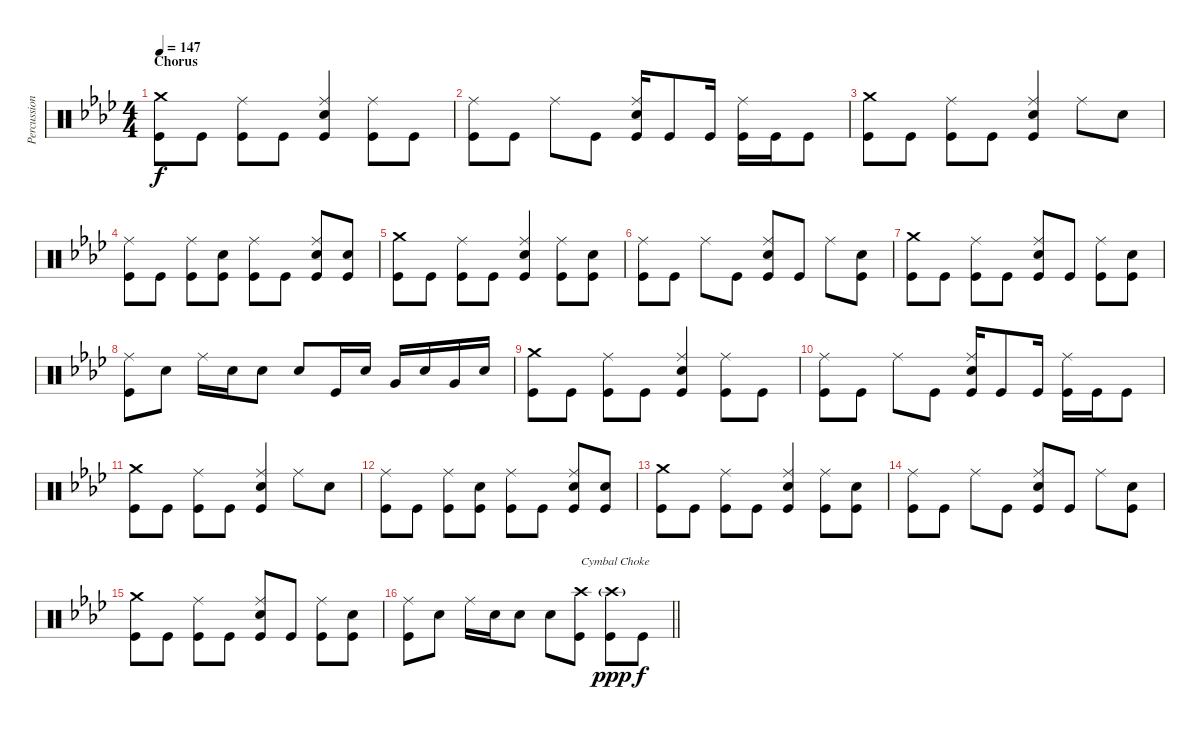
\track ("Percussion" "Percussion") {instrument percussion}
\staff {score}
\articulation defaults
\ts (4 4)
\section ("" "Chorus")
\tempo 147
\clef neutral
\ks ab
("Crash medium (hit)" "Kick (hit)").8{dy f} "Kick (hit)".8 ("Ride (middle)" "Kick (hit)").8 "Kick (hit)".8 ("Ride (middle)" "Electric Snare (hit)" "Kick (hit)").4 ("Ride (middle)" "Kick (hit)").8 "Kick (hit)".8 |
("Ride (middle)" "Kick (hit)").8 "Kick (hit)".8 "Ride (middle)".8 "Kick (hit)".8 ("Ride (middle)" "Electric Snare (hit)" "Kick (hit)").16 "Kick (hit)".8 "Kick (hit)".16 ("Ride (middle)" "Kick (hit)").16 "Kick (hit)".16 "Kick (hit)".8 |
("Crash medium (hit)" "Kick (hit)").8 "Kick (hit)".8 ("Ride (middle)" "Kick (hit)").8 "Kick (hit)".8 ("Ride (middle)" "Electric Snare (hit)" "Kick (hit)").4 "Ride (middle)".8 "Electric Snare (hit)".8 |
("Ride (middle)" "Kick (hit)").8 "Kick (hit)".8 ("Ride (middle)" "Kick (hit)").8 ("Electric Snare (hit)" "Kick (hit)").8 ("Ride (middle)" "Kick (hit)").8 "Kick (hit)".8 ("Ride (middle)" "Electric Snare (hit)" "Kick (hit)").8 ("Electric Snare (hit)" "Kick (hit)").8 |
("Crash medium (hit)" "Kick (hit)").8 "Kick (hit)".8 ("Ride (middle)" "Kick (hit)").8 "Kick (hit)".8 ("Ride (middle)" "Electric Snare (hit)" "Kick (hit)").4 ("Ride (middle)" "Kick (hit)").8 ("Electric Snare (hit)" "Kick (hit)").8 |
("Ride (middle)" "Kick (hit)").8 "Kick (hit)".8 "Ride (middle)".8 "Kick (hit)".8 ("Ride (middle)" "Electric Snare (hit)" "Kick (hit)").8 "Kick (hit)".8 "Ride (middle)".8 ("Electric Snare (hit)" "Kick (hit)").8 |
("Crash medium (hit)" "Kick (hit)").8 "Kick (hit)".8 ("Ride (middle)" "Kick (hit)").8 "Kick (hit)".8 ("Ride (middle)" "Electric Snare (hit)" "Kick (hit)").8 "Kick (hit)".8 ("Ride (middle)" "Kick (hit)").8 ("Electric Snare (hit)" "Kick (hit)").8 |
("Ride (middle)" "Kick (hit)").8 "Electric Snare (hit)".8 "Ride (middle)".16 "Electric Snare (hit)".16 "Electric Snare (hit)".8 "Electric Snare (hit)".8 "Kick (hit)".16 "Electric Snare (hit)".16 "Very Low Tom (hit)".16 "Electric Snare (hit)".16 "Very Low Tom (hit)".16 "Electric Snare (hit)".16 |
("Crash medium (hit)" "Kick (hit)").8 "Kick (hit)".8 ("Ride (middle)" "Kick (hit)").8 "Kick (hit)".8 ("Ride (middle)" "Electric Snare (hit)" "Kick (hit)").4 ("Ride (middle)" "Kick (hit)").8 "Kick (hit)".8 |
("Ride (middle)" "Kick (hit)").8 "Kick (hit)".8 "Ride (middle)".8 "Kick (hit)".8 ("Ride (middle)" "Electric Snare (hit)" "Kick (hit)").16 "Kick (hit)".8 "Kick (hit)".16 ("Ride (middle)" "Kick (hit)").16 "Kick (hit)".16 "Kick (hit)".8 |
("Crash medium (hit)" "Kick (hit)").8 "Kick (hit)".8 ("Ride (middle)" "Kick (hit)").8 "Kick (hit)".8 ("Ride (middle)" "Electric Snare (hit)" "Kick (hit)").4 "Ride (middle)".8 "Electric Snare (hit)".8 |
("Ride (middle)" "Kick (hit)").8 "Kick (hit)".8 ("Ride (middle)" "Kick (hit)").8 ("Electric Snare (hit)" "Kick (hit)").8 ("Ride (middle)" "Kick (hit)").8 "Kick (hit)".8 ("Ride (middle)" "Electric Snare (hit)" "Kick (hit)").8 ("Electric Snare (hit)" "Kick (hit)").8 |
("Crash medium (hit)" "Kick (hit)").8 "Kick (hit)".8 ("Ride (middle)" "Kick (hit)").8 "Kick (hit)".8 ("Ride (middle)" "Electric Snare (hit)" "Kick (hit)").4 ("Ride (middle)" "Kick (hit)").8 ("Electric Snare (hit)" "Kick (hit)").8 |
("Ride (middle)" "Kick (hit)").8 "Kick (hit)".8 "Ride (middle)".8 "Kick (hit)".8 ("Ride (middle)" "Electric Snare (hit)" "Kick (hit)").8 "Kick (hit)".8 "Ride (middle)".8 ("Electric Snare (hit)" "Kick (hit)").8 |
("Crash medium (hit)" "Kick (hit)").8 "Kick (hit)".8 ("Ride (middle)" "Kick (hit)").8 "Kick (hit)".8 ("Ride (middle)" "Electric Snare (hit)" "Kick (hit)").8 "Kick (hit)".8 ("Ride (middle)" "Kick (hit)").8 ("Electric Snare (hit)" "Kick (hit)").8 |
\barLineRight lightlight
("Ride (middle)" "Kick (hit)").8 "Electric Snare (hit)".8 "Ride (middle)".16 "Electric Snare (hit)".16 "Electric Snare (hit)".8 "Electric Snare (hit)".8 ("Crash high (hit)" "Kick (hit)").8{txt "Cymbal Choke"} ("Crash high (hit)"{g} "Kick (hit)").8{dy ppp} "Kick (hit)".8{dy f}
